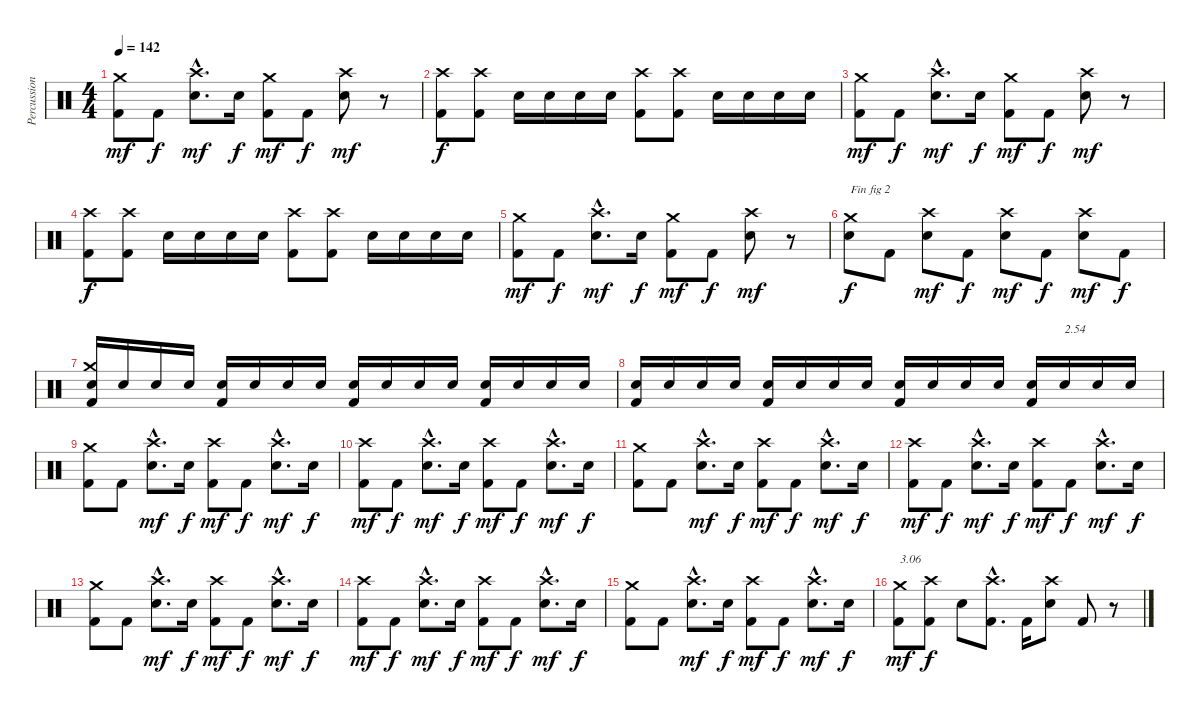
\track ("Percussions" "Percussion") {instrument percussion}
\staff {score}
\articulation defaults
\ts (4 4)
\tempo 142
\clef neutral
\ks c
("Kick (hit) 2" "Crash medium (hit)").8{dy mf} "Kick (hit) 2".8{dy f} ("Electric Snare (hit)"{hac} "Crash high (hit)"{hac}).8{d dy mf} "Electric Snare (hit)".16{dy f} ("Kick (hit) 2" "Crash medium (hit)").8{dy mf} "Kick (hit) 2".8{dy f} ("Electric Snare (hit)" "Crash high (hit)").8{dy mf} r.8 |
("Kick (hit) 2" "Crash high (hit)").8{dy f} ("Kick (hit) 2" "Crash high (hit)").8 "Electric Snare (hit)".16 "Electric Snare (hit)".16 "Electric Snare (hit)".16 "Electric Snare (hit)".16 ("Kick (hit) 2" "Crash high (hit)").8 ("Kick (hit) 2" "Crash high (hit)").8 "Electric Snare (hit)".16 "Electric Snare (hit)".16 "Electric Snare (hit)".16 "Electric Snare (hit)".16 |
("Kick (hit) 2" "Crash medium (hit)").8{dy mf} "Kick (hit) 2".8{dy f} ("Electric Snare (hit)"{hac} "Crash high (hit)"{hac}).8{d dy mf} "Electric Snare (hit)".16{dy f} ("Kick (hit) 2" "Crash medium (hit)").8{dy mf} "Kick (hit) 2".8{dy f} ("Electric Snare (hit)" "Crash high (hit)").8{dy mf} r.8 |
("Kick (hit) 2" "Crash high (hit)").8{dy f} ("Kick (hit) 2" "Crash high (hit)").8 "Electric Snare (hit)".16 "Electric Snare (hit)".16 "Electric Snare (hit)".16 "Electric Snare (hit)".16 ("Kick (hit) 2" "Crash high (hit)").8 ("Kick (hit) 2" "Crash high (hit)").8 "Electric Snare (hit)".16 "Electric Snare (hit)".16 "Electric Snare (hit)".16 "Electric Snare (hit)".16 |
("Kick (hit) 2" "Crash medium (hit)").8{dy mf} "Kick (hit) 2".8{dy f} ("Electric Snare (hit)"{hac} "Crash high (hit)"{hac}).8{d dy mf} "Electric Snare (hit)".16{dy f} ("Kick (hit) 2" "Crash medium (hit)").8{dy mf} "Kick (hit) 2".8{dy f} ("Electric Snare (hit)" "Crash high (hit)").8{dy mf} r.8 |
("Electric Snare (hit)" "Crash medium (hit)").8{txt "Fin fig 2" dy f} "Kick (hit) 2".8 ("Electric Snare (hit)" "Crash high (hit)").8{dy mf} "Kick (hit) 2".8{dy f} ("Electric Snare (hit)" "Crash high (hit)").8{dy mf} "Kick (hit) 2".8{dy f} ("Electric Snare (hit)" "Crash high (hit)").8{dy mf} "Kick (hit) 2".8{dy f} |
("Electric Snare (hit)" "Kick (hit) 2" "Crash medium (hit)").16 "Electric Snare (hit)".16 "Electric Snare (hit)".16 "Electric Snare (hit)".16 ("Electric Snare (hit)" "Kick (hit) 2").16 "Electric Snare (hit)".16 "Electric Snare (hit)".16 "Electric Snare (hit)".16 ("Electric Snare (hit)" "Kick (hit) 2").16 "Electric Snare (hit)".16 "Electric Snare (hit)".16 "Electric Snare (hit)".16 ("Electric Snare (hit)" "Kick (hit) 2").16 "Electric Snare (hit)".16 "Electric Snare (hit)".16 "Electric Snare (hit)".16 |
("Electric Snare (hit)" "Kick (hit) 2").16 "Electric Snare (hit)".16 "Electric Snare (hit)".16 "Electric Snare (hit)".16 ("Electric Snare (hit)" "Kick (hit) 2").16 "Electric Snare (hit)".16 "Electric Snare (hit)".16 "Electric Snare (hit)".16 ("Electric Snare (hit)" "Kick (hit) 2").16 "Electric Snare (hit)".16 "Electric Snare (hit)".16 "Electric Snare (hit)".16 ("Electric Snare (hit)" "Kick (hit) 2").16 "Electric Snare (hit)".16{txt "2.54"} "Electric Snare (hit)".16 "Electric Snare (hit)".16 |
("Kick (hit) 2" "Crash medium (hit)").8 "Kick (hit) 2".8 ("Electric Snare (hit)"{hac} "Crash high (hit)"{hac}).8{d dy mf} "Electric Snare (hit)".16{dy f} ("Kick (hit) 2" "Crash high (hit)").8{dy mf} "Kick (hit) 2".8{dy f} ("Electric Snare (hit)"{hac} "Crash high (hit)"{hac}).8{d dy mf} "Electric Snare (hit)".16{dy f} |
("Kick (hit) 2" "Crash high (hit)").8{dy mf} "Kick (hit) 2".8{dy f} ("Electric Snare (hit)"{hac} "Crash high (hit)"{hac}).8{d dy mf} "Electric Snare (hit)".16{dy f} ("Kick (hit) 2" "Crash high (hit)").8{dy mf} "Kick (hit) 2".8{dy f} ("Electric Snare (hit)"{hac} "Crash high (hit)"{hac}).8{d dy mf} "Electric Snare (hit)".16{dy f} |
("Kick (hit) 2" "Crash medium (hit)").8 "Kick (hit) 2".8 ("Electric Snare (hit)"{hac} "Crash high (hit)"{hac}).8{d dy mf} "Electric Snare (hit)".16{dy f} ("Kick (hit) 2" "Crash high (hit)").8{dy mf} "Kick (hit) 2".8{dy f} ("Electric Snare (hit)"{hac} "Crash high (hit)"{hac}).8{d dy mf} "Electric Snare (hit)".16{dy f} |
("Kick (hit) 2" "Crash high (hit)").8{dy mf} "Kick (hit) 2".8{dy f} ("Electric Snare (hit)"{hac} "Crash high (hit)"{hac}).8{d dy mf} "Electric Snare (hit)".16{dy f} ("Kick (hit) 2" "Crash high (hit)").8{dy mf} "Kick (hit) 2".8{dy f} ("Electric Snare (hit)"{hac} "Crash high (hit)"{hac}).8{d dy mf} "Electric Snare (hit)".16{dy f} |
("Kick (hit) 2" "Crash medium (hit)").8 "Kick (hit) 2".8 ("Electric Snare (hit)"{hac} "Crash high (hit)"{hac}).8{d dy mf} "Electric Snare (hit)".16{dy f} ("Kick (hit) 2" "Crash high (hit)").8{dy mf} "Kick (hit) 2".8{dy f} ("Electric Snare (hit)"{hac} "Crash high (hit)"{hac}).8{d dy mf} "Electric Snare (hit)".16{dy f} |
("Kick (hit) 2" "Crash high (hit)").8{dy mf} "Kick (hit) 2".8{dy f} ("Electric Snare (hit)"{hac} "Crash high (hit)"{hac}).8{d dy mf} "Electric Snare (hit)".16{dy f} ("Kick (hit) 2" "Crash high (hit)").8{dy mf} "Kick (hit) 2".8{dy f} ("Electric Snare (hit)"{hac} "Crash high (hit)"{hac}).8{d dy mf} "Electric Snare (hit)".16{dy f} |
("Kick (hit) 2" "Crash medium (hit)").8 "Kick (hit) 2".8 ("Electric Snare (hit)"{hac} "Crash high (hit)"{hac}).8{d dy mf} "Electric Snare (hit)".16{dy f} ("Kick (hit) 2" "Crash high (hit)").8{dy mf} "Kick (hit) 2".8{dy f} ("Electric Snare (hit)"{hac} "Crash high (hit)"{hac}).8{d dy mf} "Electric Snare (hit)".16{dy f} |
("Kick (hit) 2" "Crash medium (hit)").8{txt "3.06" dy mf} ("Kick (hit) 2" "Crash high (hit)").8{dy f} "Electric Snare (hit)".8 ("Kick (hit) 2"{hac} "Crash high (hit)"{hac}).8{d} "Kick (hit) 2".16 ("Electric Snare (hit)" "Crash high (hit)").8 "Kick (hit) 2".8 r.8
